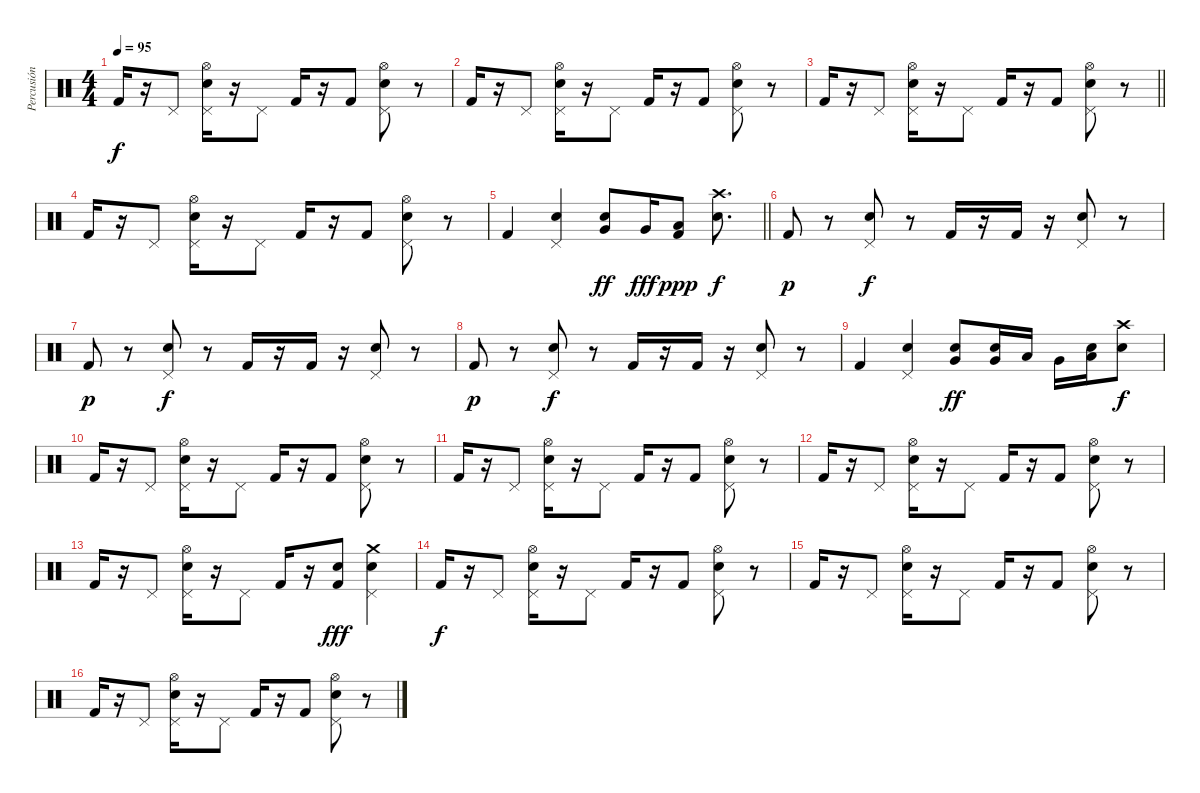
\track ("Percusión" "Percusión") {instrument percussion}
\staff {score}
\articulation defaults
\ts (4 4)
\tempo 95
\clef neutral
\ks c "Kick (hit) 2".16{dy f}
r.16 "Pedal Hi-Hat (hit)".8 ("Snare (hit) 2" "Pedal Hi-Hat (hit)" "Hi-Hat (open)").16 r.16 "Pedal Hi-Hat (hit)".8 "Kick (hit) 2".16 r.16 "Kick (hit) 2".8 ("Snare (hit) 2" "Pedal Hi-Hat (hit)" "Hi-Hat (open)").8 r.8 |
"Kick (hit) 2".16 r.16 "Pedal Hi-Hat (hit)".8 ("Snare (hit) 2" "Pedal Hi-Hat (hit)" "Hi-Hat (open)").16 r.16 "Pedal Hi-Hat (hit)".8 "Kick (hit) 2".16 r.16 "Kick (hit) 2".8 ("Snare (hit) 2" "Pedal Hi-Hat (hit)" "Hi-Hat (open)").8 r.8 |
\barLineRight lightlight "Kick (hit) 2".16
r.16 "Pedal Hi-Hat (hit)".8 ("Snare (hit) 2" "Pedal Hi-Hat (hit)" "Hi-Hat (open)").16 r.16 "Pedal Hi-Hat (hit)".8 "Kick (hit) 2".16 r.16 "Kick (hit) 2".8 ("Snare (hit) 2" "Pedal Hi-Hat (hit)" "Hi-Hat (open)").8 r.8 |
"Kick (hit) 2".16 r.16 "Pedal Hi-Hat (hit)".8 ("Snare (hit) 2" "Pedal Hi-Hat (hit)" "Hi-Hat (open)").16 r.16 "Pedal Hi-Hat (hit)".8 "Kick (hit) 2".16 r.16 "Kick (hit) 2".8 ("Snare (hit) 2" "Pedal Hi-Hat (hit)" "Hi-Hat (open)").8 r.8 |
\barLineRight lightlight "Kick (hit) 2".4
("Snare (hit) 2" "Pedal Hi-Hat (hit)").4 ("Very Low Tom (hit)" "Snare (hit) 2").8{dy ff} "Very Low Tom (hit)".16{dy fff} ("Low Tom (hit)" "Kick (hit) 2").8{dy ppp} ("Crash high (hit)" "Snare (hit) 2").8{d dy f} |
\section ("" "")
"Kick (hit) 2".8{dy p} r.8 ("Snare (hit) 2" "Pedal Hi-Hat (hit)").8{dy f} r.8 "Kick (hit) 2".16 r.16 "Kick (hit) 2".16 r.16 ("Snare (hit) 2" "Pedal Hi-Hat (hit)").8 r.8 |
"Kick (hit) 2".8{dy p} r.8 ("Snare (hit) 2" "Pedal Hi-Hat (hit)").8{dy f} r.8 "Kick (hit) 2".16 r.16 "Kick (hit) 2".16 r.16 ("Snare (hit) 2" "Pedal Hi-Hat (hit)").8 r.8 |
"Kick (hit) 2".8{dy p} r.8 ("Snare (hit) 2" "Pedal Hi-Hat (hit)").8{dy f} r.8 "Kick (hit) 2".16 r.16 "Kick (hit) 2".16 r.16 ("Snare (hit) 2" "Pedal Hi-Hat (hit)").8 r.8 |
"Kick (hit) 2".4 ("Snare (hit) 2" "Pedal Hi-Hat (hit)").4 ("Very Low Tom (hit)" "Snare (hit) 2").8{dy ff} ("Very Low Tom (hit)" "Snare (hit) 2").16 "Low Tom (hit)".16 "Very Low Tom (hit)".16 ("Snare (hit) 2" "Low Floor Tom (hit)").16 ("Crash high (hit)" "Snare (hit) 2").8{dy f} |
"Kick (hit) 2".16 r.16 "Pedal Hi-Hat (hit)".8 ("Snare (hit) 2" "Pedal Hi-Hat (hit)" "Hi-Hat (open)").16 r.16 "Pedal Hi-Hat (hit)".8 "Kick (hit) 2".16 r.16 "Kick (hit) 2".8 ("Snare (hit) 2" "Pedal Hi-Hat (hit)" "Hi-Hat (open)").8 r.8 |
"Kick (hit) 2".16 r.16 "Pedal Hi-Hat (hit)".8 ("Snare (hit) 2" "Pedal Hi-Hat (hit)" "Hi-Hat (open)").16 r.16 "Pedal Hi-Hat (hit)".8 "Kick (hit) 2".16 r.16 "Kick (hit) 2".8 ("Snare (hit) 2" "Pedal Hi-Hat (hit)" "Hi-Hat (open)").8 r.8 |
"Kick (hit) 2".16 r.16 "Pedal Hi-Hat (hit)".8 ("Snare (hit) 2" "Pedal Hi-Hat (hit)" "Hi-Hat (open)").16 r.16 "Pedal Hi-Hat (hit)".8 "Kick (hit) 2".16 r.16 "Kick (hit) 2".8 ("Snare (hit) 2" "Pedal Hi-Hat (hit)" "Hi-Hat (open)").8 r.8 |
"Kick (hit) 2".16 r.16 "Pedal Hi-Hat (hit)".8 ("Snare (hit) 2" "Pedal Hi-Hat (hit)" "Hi-Hat (open)").16 r.16 "Pedal Hi-Hat (hit)".8 "Kick (hit) 2".16 r.16 ("Kick (hit) 2" "Snare (hit) 2").8{dy fff} ("Snare (hit) 2" "Pedal Hi-Hat (hit)" "Crash medium (hit)").4 |
"Kick (hit) 2".16{dy f} r.16 "Pedal Hi-Hat (hit)".8 ("Snare (hit) 2" "Pedal Hi-Hat (hit)" "Hi-Hat (open)").16 r.16 "Pedal Hi-Hat (hit)".8 "Kick (hit) 2".16 r.16 "Kick (hit) 2".8 ("Snare (hit) 2" "Pedal Hi-Hat (hit)" "Hi-Hat (open)").8 r.8 |
"Kick (hit) 2".16 r.16 "Pedal Hi-Hat (hit)".8 ("Snare (hit) 2" "Pedal Hi-Hat (hit)" "Hi-Hat (open)").16 r.16 "Pedal Hi-Hat (hit)".8 "Kick (hit) 2".16 r.16 "Kick (hit) 2".8 ("Snare (hit) 2" "Pedal Hi-Hat (hit)" "Hi-Hat (open)").8 r.8 |
"Kick (hit) 2".16 r.16 "Pedal Hi-Hat (hit)".8 ("Snare (hit) 2" "Pedal Hi-Hat (hit)" "Hi-Hat (open)").16 r.16 "Pedal Hi-Hat (hit)".8 "Kick (hit) 2".16 r.16 "Kick (hit) 2".8 ("Snare (hit) 2" "Pedal Hi-Hat (hit)" "Hi-Hat (open)").8 r.8
